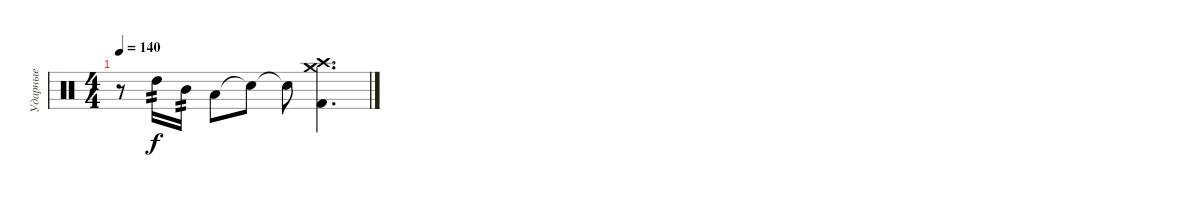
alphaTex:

\track ("Ударные" "Ударные") {instrument percussion}
\staff {score}
\articulation defaults
\ts (4 4)
\tempo 140
\clef neutral
\ks c
r.8{dy f} "High Tom (hit)".16{tp 2} "Mid Tom (hit)".16{tp 2} "Low Tom (hit)".8 "Snare (hit)"{t}.8 "Snare (hit)"{t}.8 ("Crash medium (hit)" "Crash high (hit)" "Kick (hit) 2").4{d}
